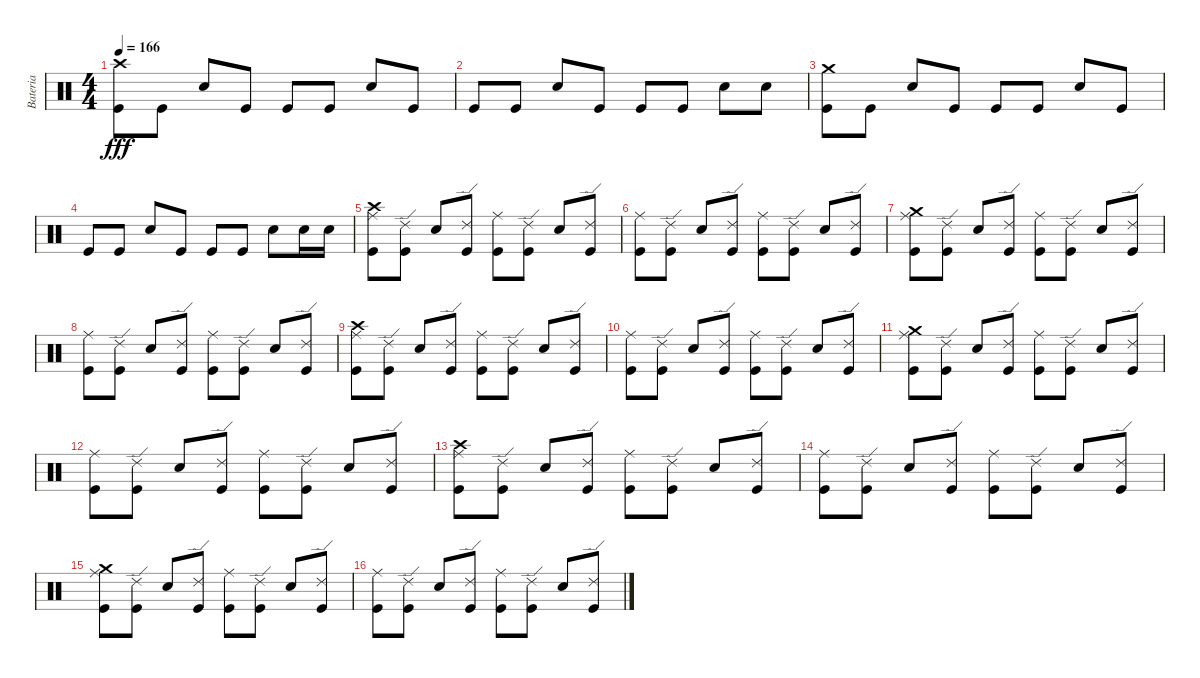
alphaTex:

\track ("Bateria" "Bateria") {instrument percussion}
\staff {score}
\articulation defaults
\ts (4 4)
\tempo 166
\clef neutral
\ks c
("Kick (hit)" "Crash high (hit)").8{dy fff} "Kick (hit)".8 "Snare (hit) 2".8 "Kick (hit)".8 "Kick (hit)".8 "Kick (hit)".8 "Snare (hit) 2".8 "Kick (hit)".8 |
"Kick (hit)".8 "Kick (hit)".8 "Snare (hit) 2".8 "Kick (hit)".8 "Kick (hit)".8 "Kick (hit)".8 "Snare (hit) 2".8 "Snare (hit) 2".8 |
("Kick (hit)" "Crash medium (hit)").8 "Kick (hit)".8 "Snare (hit) 2".8 "Kick (hit)".8 "Kick (hit)".8 "Kick (hit)".8 "Snare (hit) 2".8 "Kick (hit)".8 |
"Kick (hit)".8 "Kick (hit)".8 "Snare (hit) 2".8 "Kick (hit)".8 "Kick (hit)".8 "Kick (hit)".8 "Snare (hit) 2".8 "Snare (hit) 2".16 "Snare (hit) 2".16 |
("Kick (hit)" "Ride (middle)" "Crash high (hit)").8 ("Kick (hit)" "Ride (edge) 2").8 "Snare (hit) 2".8 ("Kick (hit)" "Ride (edge) 2").8 ("Kick (hit)" "Ride (middle)").8 ("Kick (hit)" "Ride (edge) 2").8 "Snare (hit) 2".8 ("Kick (hit)" "Ride (edge) 2").8 |
("Kick (hit)" "Ride (middle)").8 ("Kick (hit)" "Ride (edge) 2").8 "Snare (hit) 2".8 ("Kick (hit)" "Ride (edge) 2").8 ("Kick (hit)" "Ride (middle)").8 ("Kick (hit)" "Ride (edge) 2").8 "Snare (hit) 2".8 ("Kick (hit)" "Ride (edge) 2").8 |
("Kick (hit)" "Ride (middle)" "Crash medium (hit)").8 ("Kick (hit)" "Ride (edge) 2").8 "Snare (hit) 2".8 ("Kick (hit)" "Ride (edge) 2").8 ("Kick (hit)" "Ride (middle)").8 ("Kick (hit)" "Ride (edge) 2").8 "Snare (hit) 2".8 ("Kick (hit)" "Ride (edge) 2").8 |
("Kick (hit)" "Ride (middle)").8 ("Kick (hit)" "Ride (edge) 2").8 "Snare (hit) 2".8 ("Kick (hit)" "Ride (edge) 2").8 ("Kick (hit)" "Ride (middle)").8 ("Kick (hit)" "Ride (edge) 2").8 "Snare (hit) 2".8 ("Kick (hit)" "Ride (edge) 2").8 |
("Kick (hit)" "Ride (middle)" "Crash high (hit)").8 ("Kick (hit)" "Ride (edge) 2").8 "Snare (hit) 2".8 ("Kick (hit)" "Ride (edge) 2").8 ("Kick (hit)" "Ride (middle)").8 ("Kick (hit)" "Ride (edge) 2").8 "Snare (hit) 2".8 ("Kick (hit)" "Ride (edge) 2").8 |
("Kick (hit)" "Ride (middle)").8 ("Kick (hit)" "Ride (edge) 2").8 "Snare (hit) 2".8 ("Kick (hit)" "Ride (edge) 2").8 ("Kick (hit)" "Ride (middle)").8 ("Kick (hit)" "Ride (edge) 2").8 "Snare (hit) 2".8 ("Kick (hit)" "Ride (edge) 2").8 |
("Kick (hit)" "Ride (middle)" "Crash medium (hit)").8 ("Kick (hit)" "Ride (edge) 2").8 "Snare (hit) 2".8 ("Kick (hit)" "Ride (edge) 2").8 ("Kick (hit)" "Ride (middle)").8 ("Kick (hit)" "Ride (edge) 2").8 "Snare (hit) 2".8 ("Kick (hit)" "Ride (edge) 2").8 |
("Kick (hit)" "Ride (middle)").8 ("Kick (hit)" "Ride (edge) 2").8 "Snare (hit) 2".8 ("Kick (hit)" "Ride (edge) 2").8 ("Kick (hit)" "Ride (middle)").8 ("Kick (hit)" "Ride (edge) 2").8 "Snare (hit) 2".8 ("Kick (hit)" "Ride (edge) 2").8 |
("Kick (hit)" "Ride (middle)" "Crash high (hit)").8 ("Kick (hit)" "Ride (edge) 2").8 "Snare (hit) 2".8 ("Kick (hit)" "Ride (edge) 2").8 ("Kick (hit)" "Ride (middle)").8 ("Kick (hit)" "Ride (edge) 2").8 "Snare (hit) 2".8 ("Kick (hit)" "Ride (edge) 2").8 |
("Kick (hit)" "Ride (middle)").8 ("Kick (hit)" "Ride (edge) 2").8 "Snare (hit) 2".8 ("Kick (hit)" "Ride (edge) 2").8 ("Kick (hit)" "Ride (middle)").8 ("Kick (hit)" "Ride (edge) 2").8 "Snare (hit) 2".8 ("Ride (edge) 2" "Kick (hit)").8 |
("Kick (hit)" "Ride (middle)" "Crash medium (hit)").8 ("Kick (hit)" "Ride (edge) 2").8 "Snare (hit) 2".8 ("Kick (hit)" "Ride (edge) 2").8 ("Kick (hit)" "Ride (middle)").8 ("Kick (hit)" "Ride (edge) 2").8 "Snare (hit) 2".8 ("Kick (hit)" "Ride (edge) 2").8 |
("Kick (hit)" "Ride (middle)").8 ("Kick (hit)" "Ride (edge) 2").8 "Snare (hit) 2".8 ("Kick (hit)" "Ride (edge) 2").8 ("Kick (hit)" "Ride (middle)").8 ("Kick (hit)" "Ride (edge) 2").8 "Snare (hit) 2".8 ("Kick (hit)" "Ride (edge) 2").8
